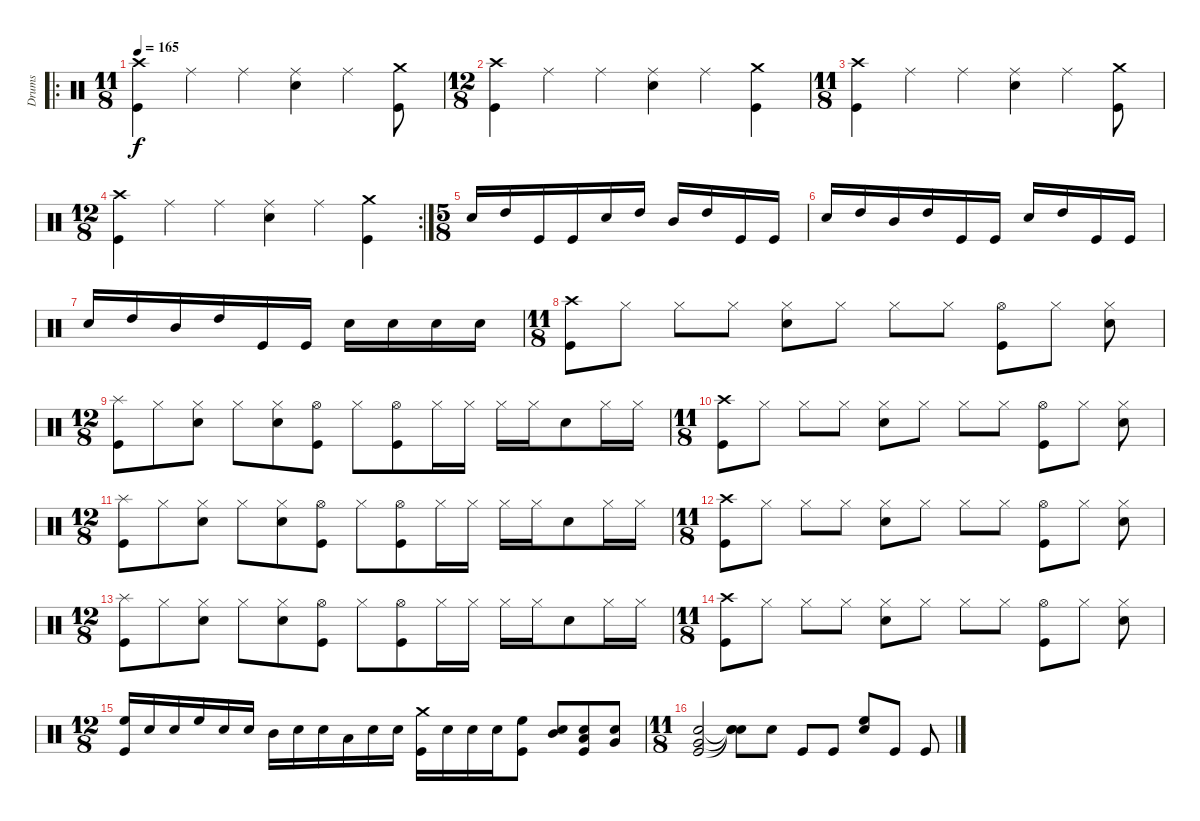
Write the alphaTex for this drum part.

\track ("Drums" "Drums") {instrument percussion}
\staff {score}
\articulation defaults
\ro
\ts (11 8)
\tempo 165
\clef neutral
\ks c
("Crash high (hit)" "Kick (hit)").4{dy f} "Ride (middle)".4 "Ride (middle)".4 ("Ride (middle)" "Electric Snare (hit)").4 "Ride (middle)".4 ("Crash medium (hit)" "Kick (hit)").8 |
\ts (12 8)
("Crash high (hit)" "Kick (hit)").4 "Ride (middle)".4 "Ride (middle)".4 ("Ride (middle)" "Electric Snare (hit)").4 "Ride (middle)".4 ("Crash medium (hit)" "Kick (hit)").4 |
\ts (11 8)
("Crash high (hit)" "Kick (hit)").4 "Ride (middle)".4 "Ride (middle)".4 ("Ride (middle)" "Electric Snare (hit)").4 "Ride (middle)".4 ("Crash medium (hit)" "Kick (hit)").8 |
\rc 2
\ts (12 8)
("Crash high (hit)" "Kick (hit)").4 "Ride (middle)".4 "Ride (middle)".4 ("Ride (middle)" "Electric Snare (hit)").4 "Ride (middle)".4 ("Crash medium (hit)" "Kick (hit)").4 |
\ts (5 8)
"Electric Snare (hit)".16 "High Tom (hit)".16 "Kick (hit)".16 "Kick (hit)".16 "Electric Snare (hit)".16 "High Tom (hit)".16 "Mid Tom (hit)".16 "High Tom (hit)".16 "Kick (hit)".16 "Kick (hit)".16 |
"Electric Snare (hit)".16 "High Tom (hit)".16 "Mid Tom (hit)".16 "High Tom (hit)".16 "Kick (hit)".16 "Kick (hit)".16 "Electric Snare (hit)".16 "High Tom (hit)".16 "Kick (hit)".16 "Kick (hit)".16 |
"Electric Snare (hit)".16 "High Tom (hit)".16 "Mid Tom (hit)".16 "High Tom (hit)".16 "Kick (hit)".16 "Kick (hit)".16 "Electric Snare (hit)".16 "Electric Snare (hit)".16 "Electric Snare (hit)".16 "Electric Snare (hit)".16 |
\ts (11 8)
("Crash high (hit)" "Kick (hit)").8 "Hi-Hat (closed)".8 "Hi-Hat (closed)".8 "Hi-Hat (closed)".8 ("Hi-Hat (closed)" "Electric Snare (hit)").8 "Hi-Hat (closed)".8 "Hi-Hat (closed)".8 "Hi-Hat (closed)".8 ("Hi-Hat (open)" "Kick (hit)").8 "Hi-Hat (closed)".8 ("Hi-Hat (closed)" "Electric Snare (hit)").8 |
\ts (12 8)
("Splash (hit)" "Kick (hit)").8 "Hi-Hat (closed)".8 ("Hi-Hat (closed)" "Electric Snare (hit)").8 "Hi-Hat (closed)".8 ("Hi-Hat (closed)" "Electric Snare (hit)").8 ("Hi-Hat (open)" "Kick (hit)").8 "Hi-Hat (closed)".8 ("Hi-Hat (open)" "Kick (hit)").8 "Hi-Hat (closed)".16 "Hi-Hat (closed)".16 "Hi-Hat (closed)".16 "Hi-Hat (closed)".16 "Electric Snare (hit)".8 "Hi-Hat (closed)".16 "Hi-Hat (closed)".16 |
\ts (11 8)
("Crash high (hit)" "Kick (hit)").8 "Hi-Hat (closed)".8 "Hi-Hat (closed)".8 "Hi-Hat (closed)".8 ("Hi-Hat (closed)" "Electric Snare (hit)").8 "Hi-Hat (closed)".8 "Hi-Hat (closed)".8 "Hi-Hat (closed)".8 ("Hi-Hat (open)" "Kick (hit)").8 "Hi-Hat (closed)".8 ("Hi-Hat (closed)" "Electric Snare (hit)").8 |
\ts (12 8)
("Splash (hit)" "Kick (hit)").8 "Hi-Hat (closed)".8 ("Hi-Hat (closed)" "Electric Snare (hit)").8 "Hi-Hat (closed)".8 ("Hi-Hat (closed)" "Electric Snare (hit)").8 ("Hi-Hat (open)" "Kick (hit)").8 "Hi-Hat (closed)".8 ("Hi-Hat (open)" "Kick (hit)").8 "Hi-Hat (closed)".16 "Hi-Hat (closed)".16 "Hi-Hat (closed)".16 "Hi-Hat (closed)".16 "Electric Snare (hit)".8 "Hi-Hat (closed)".16 "Hi-Hat (closed)".16 |
\ts (11 8)
("Crash high (hit)" "Kick (hit)").8 "Hi-Hat (closed)".8 "Hi-Hat (closed)".8 "Hi-Hat (closed)".8 ("Hi-Hat (closed)" "Electric Snare (hit)").8 "Hi-Hat (closed)".8 "Hi-Hat (closed)".8 "Hi-Hat (closed)".8 ("Hi-Hat (open)" "Kick (hit)").8 "Hi-Hat (closed)".8 ("Hi-Hat (closed)" "Electric Snare (hit)").8 |
\ts (12 8)
("Splash (hit)" "Kick (hit)").8 "Hi-Hat (closed)".8 ("Hi-Hat (closed)" "Electric Snare (hit)").8 "Hi-Hat (closed)".8 ("Hi-Hat (closed)" "Electric Snare (hit)").8 ("Hi-Hat (open)" "Kick (hit)").8 "Hi-Hat (closed)".8 ("Hi-Hat (open)" "Kick (hit)").8 "Hi-Hat (closed)".16 "Hi-Hat (closed)".16 "Hi-Hat (closed)".16 "Hi-Hat (closed)".16 "Electric Snare (hit)".8 "Hi-Hat (closed)".16 "Hi-Hat (closed)".16 |
\ts (11 8)
("Crash high (hit)" "Kick (hit)").8 "Hi-Hat (closed)".8 "Hi-Hat (closed)".8 "Hi-Hat (closed)".8 ("Hi-Hat (closed)" "Electric Snare (hit)").8 "Hi-Hat (closed)".8 "Hi-Hat (closed)".8 "Hi-Hat (closed)".8 ("Hi-Hat (open)" "Kick (hit)").8 "Hi-Hat (closed)".8 ("Hi-Hat (closed)" "Electric Snare (hit)").8 |
\ts (12 8)
("High Floor Tom (hit)" "Kick (hit)").16 "Electric Snare (hit)".16 "Electric Snare (hit)".16 "High Floor Tom (hit)".16 "Electric Snare (hit)".16 "Electric Snare (hit)".16 "Mid Tom (hit)".16 "Electric Snare (hit)".16 "Electric Snare (hit)".16 "Low Tom (hit)".16 "Electric Snare (hit)".16 "Electric Snare (hit)".16 ("Crash medium (hit)" "Kick (hit)").16 "Electric Snare (hit)".16 "Electric Snare (hit)".16 "Electric Snare (hit)".16 ("High Floor Tom (hit)" "Kick (hit)").8 ("Mid Tom (hit)" "Electric Snare (hit)").8 ("Low Tom (hit)" "Electric Snare (hit)" "Kick (hit)").8 ("Very Low Tom (hit)" "Electric Snare (hit)").8 |
\ts (11 8)
("Very Low Tom (hit)" "Electric Snare (hit)" "Kick (hit)").2 ("Snare (hit)"{t} "Snare (hit)"{t} "Snare (hit)"{t}).8 "Electric Snare (hit)".8 "Kick (hit)".8 "Kick (hit)".8 ("Electric Snare (hit)" "High Floor Tom (hit)").8 "Kick (hit)".8 "Kick (hit)".8
